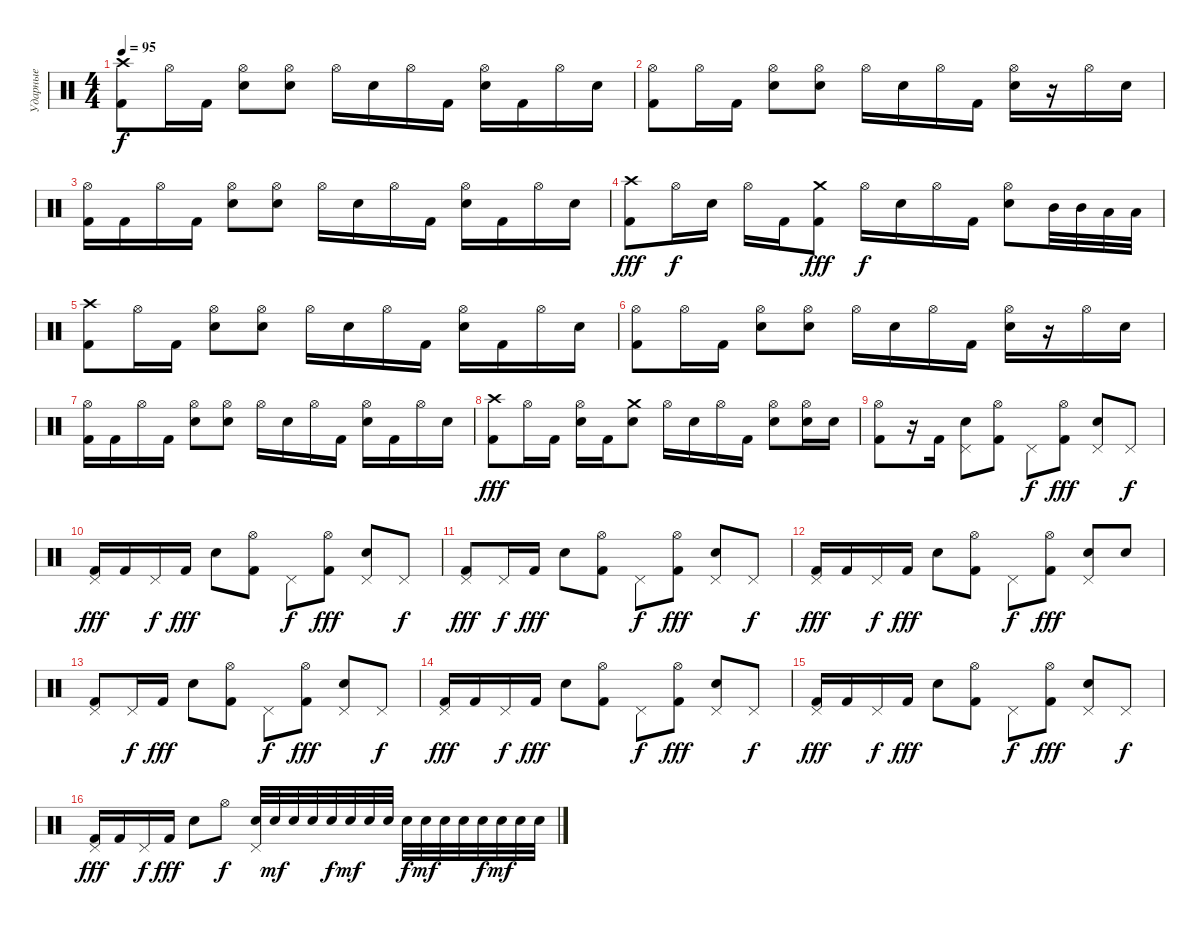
\track ("Ударные" "Ударные") {instrument percussion}
\staff {score}
\articulation defaults
\ts (4 4)
\tempo 95
\clef neutral
\ks c
("Crash high (hit)" "Kick (hit) 2").8{dy f} "Hi-Hat (open)".16 "Kick (hit) 2".16 ("Hi-Hat (open)" "Electric Snare (hit)").8 ("Hi-Hat (open)" "Electric Snare (hit)").8 "Hi-Hat (open)".16 "Electric Snare (hit)".16 "Hi-Hat (open)".16 "Kick (hit) 2".16 ("Hi-Hat (open)" "Electric Snare (hit)").16 "Kick (hit) 2".16 "Hi-Hat (open)".16 "Electric Snare (hit)".16 |
("Hi-Hat (open)" "Kick (hit) 2").8 "Hi-Hat (open)".16 "Kick (hit) 2".16 ("Hi-Hat (open)" "Electric Snare (hit)").8 ("Hi-Hat (open)" "Electric Snare (hit)").8 "Hi-Hat (open)".16 "Electric Snare (hit)".16 "Hi-Hat (open)".16 "Kick (hit) 2".16 ("Hi-Hat (open)" "Electric Snare (hit)").16 r.16 "Hi-Hat (open)".16 "Electric Snare (hit)".16 |
("Hi-Hat (open)" "Kick (hit) 2").16 "Kick (hit) 2".16 "Hi-Hat (open)".16 "Kick (hit) 2".16 ("Hi-Hat (open)" "Electric Snare (hit)").8 ("Hi-Hat (open)" "Electric Snare (hit)").8 "Hi-Hat (open)".16 "Electric Snare (hit)".16 "Hi-Hat (open)".16 "Kick (hit) 2".16 ("Hi-Hat (open)" "Electric Snare (hit)").16 "Kick (hit) 2".16 "Hi-Hat (open)".16 "Electric Snare (hit)".16 |
("Crash high (hit)" "Kick (hit) 2").8{dy fff} "Hi-Hat (open)".16{dy f} "Electric Snare (hit)".16 "Hi-Hat (open)".16 "Kick (hit) 2".16 ("Crash medium (hit)" "Kick (hit) 2").8{dy fff} "Hi-Hat (open)".16{dy f} "Electric Snare (hit)".16 "Hi-Hat (open)".16 "Kick (hit) 2".16 ("Hi-Hat (open)" "Electric Snare (hit)").8 "Mid Tom (hit)".32 "Mid Tom (hit)".32 "Low Tom (hit)".32 "Low Tom (hit)".32 |
("Crash high (hit)" "Kick (hit) 2").8 "Hi-Hat (open)".16 "Kick (hit) 2".16 ("Hi-Hat (open)" "Electric Snare (hit)").8 ("Hi-Hat (open)" "Electric Snare (hit)").8 "Hi-Hat (open)".16 "Electric Snare (hit)".16 "Hi-Hat (open)".16 "Kick (hit) 2".16 ("Hi-Hat (open)" "Electric Snare (hit)").16 "Kick (hit) 2".16 "Hi-Hat (open)".16 "Electric Snare (hit)".16 |
("Hi-Hat (open)" "Kick (hit) 2").8 "Hi-Hat (open)".16 "Kick (hit) 2".16 ("Hi-Hat (open)" "Electric Snare (hit)").8 ("Hi-Hat (open)" "Electric Snare (hit)").8 "Hi-Hat (open)".16 "Electric Snare (hit)".16 "Hi-Hat (open)".16 "Kick (hit) 2".16 ("Hi-Hat (open)" "Electric Snare (hit)").16 r.16 "Hi-Hat (open)".16 "Electric Snare (hit)".16 |
("Hi-Hat (open)" "Kick (hit) 2").16 "Kick (hit) 2".16 "Hi-Hat (open)".16 "Kick (hit) 2".16 ("Hi-Hat (open)" "Electric Snare (hit)").8 ("Hi-Hat (open)" "Electric Snare (hit)").8 "Hi-Hat (open)".16 "Electric Snare (hit)".16 "Hi-Hat (open)".16 "Kick (hit) 2".16 ("Hi-Hat (open)" "Electric Snare (hit)").16 "Kick (hit) 2".16 "Hi-Hat (open)".16 "Electric Snare (hit)".16 |
("Crash high (hit)" "Kick (hit) 2").8{dy fff} "Hi-Hat (open)".16 "Kick (hit) 2".16 ("Hi-Hat (open)" "Electric Snare (hit)").16 "Kick (hit) 2".16 ("Crash medium (hit)" "Electric Snare (hit)").8 "Hi-Hat (open)".16 "Electric Snare (hit)".16 "Hi-Hat (open)".16 "Kick (hit) 2".16 ("Hi-Hat (open)" "Electric Snare (hit)").8 ("Hi-Hat (open)" "Electric Snare (hit)").16 "Electric Snare (hit)".16 |
("Hi-Hat (open)" "Kick (hit) 2").8 r.16 "Kick (hit) 2".16 ("Pedal Hi-Hat (hit)" "Electric Snare (hit)").8 ("Hi-Hat (open)" "Kick (hit) 2").8 "Pedal Hi-Hat (hit)".8{dy f} ("Hi-Hat (open)" "Kick (hit) 2").8{dy fff} ("Pedal Hi-Hat (hit)" "Electric Snare (hit)").8 "Pedal Hi-Hat (hit)".8{dy f} |
("Pedal Hi-Hat (hit)" "Kick (hit) 2").16{dy fff} "Kick (hit) 2".16 "Pedal Hi-Hat (hit)".16{dy f} "Kick (hit) 2".16{dy fff} "Electric Snare (hit)".8 ("Hi-Hat (open)" "Kick (hit) 2").8 "Pedal Hi-Hat (hit)".8{dy f} ("Hi-Hat (open)" "Kick (hit) 2").8{dy fff} ("Pedal Hi-Hat (hit)" "Electric Snare (hit)").8 "Pedal Hi-Hat (hit)".8{dy f} |
("Pedal Hi-Hat (hit)" "Kick (hit) 2").8{dy fff} "Pedal Hi-Hat (hit)".16{dy f} "Kick (hit) 2".16{dy fff} "Electric Snare (hit)".8 ("Hi-Hat (open)" "Kick (hit) 2").8 "Pedal Hi-Hat (hit)".8{dy f} ("Hi-Hat (open)" "Kick (hit) 2").8{dy fff} ("Pedal Hi-Hat (hit)" "Electric Snare (hit)").8 "Pedal Hi-Hat (hit)".8{dy f} |
("Pedal Hi-Hat (hit)" "Kick (hit) 2").16{dy fff} "Kick (hit) 2".16 "Pedal Hi-Hat (hit)".16{dy f} "Kick (hit) 2".16{dy fff} "Electric Snare (hit)".8 ("Hi-Hat (open)" "Kick (hit) 2").8 "Pedal Hi-Hat (hit)".8{dy f} ("Hi-Hat (open)" "Kick (hit) 2").8{dy fff} ("Pedal Hi-Hat (hit)" "Electric Snare (hit)").8 "Electric Snare (hit)".8 |
("Pedal Hi-Hat (hit)" "Kick (hit) 2").8 "Pedal Hi-Hat (hit)".16{dy f} "Kick (hit) 2".16{dy fff} "Electric Snare (hit)".8 ("Hi-Hat (open)" "Kick (hit) 2").8 "Pedal Hi-Hat (hit)".8{dy f} ("Hi-Hat (open)" "Kick (hit) 2").8{dy fff} ("Pedal Hi-Hat (hit)" "Electric Snare (hit)").8 "Pedal Hi-Hat (hit)".8{dy f} |
("Pedal Hi-Hat (hit)" "Kick (hit) 2").16{dy fff} "Kick (hit) 2".16 "Pedal Hi-Hat (hit)".16{dy f} "Kick (hit) 2".16{dy fff} "Electric Snare (hit)".8 ("Hi-Hat (open)" "Kick (hit) 2").8 "Pedal Hi-Hat (hit)".8{dy f} ("Hi-Hat (open)" "Kick (hit) 2").8{dy fff} ("Pedal Hi-Hat (hit)" "Electric Snare (hit)").8 "Pedal Hi-Hat (hit)".8{dy f} |
("Pedal Hi-Hat (hit)" "Kick (hit) 2").16{dy fff} "Kick (hit) 2".16 "Pedal Hi-Hat (hit)".16{dy f} "Kick (hit) 2".16{dy fff} "Electric Snare (hit)".8 ("Hi-Hat (open)" "Kick (hit) 2").8 "Pedal Hi-Hat (hit)".8{dy f} ("Hi-Hat (open)" "Kick (hit) 2").8{dy fff} ("Pedal Hi-Hat (hit)" "Electric Snare (hit)").8 "Pedal Hi-Hat (hit)".8{dy f} |
("Pedal Hi-Hat (hit)" "Kick (hit) 2").16{dy fff} "Kick (hit) 2".16 "Pedal Hi-Hat (hit)".16{dy f} "Kick (hit) 2".16{dy fff} "Electric Snare (hit)".8 "Hi-Hat (open)".8{dy f} ("Pedal Hi-Hat (hit)" "Electric Snare (hit)").32 "Electric Snare (hit)".32{dy mf} "Electric Snare (hit)".32 "Electric Snare (hit)".32 "Electric Snare (hit)".32{dy f} "Electric Snare (hit)".32{dy mf} "Electric Snare (hit)".32 "Electric Snare (hit)".32 "Electric Snare (hit)".32{dy f} "Electric Snare (hit)".32{dy mf} "Electric Snare (hit)".32 "Electric Snare (hit)".32 "Electric Snare (hit)".32{dy f} "Electric Snare (hit)".32{dy mf} "Electric Snare (hit)".32 "Electric Snare (hit)".32
